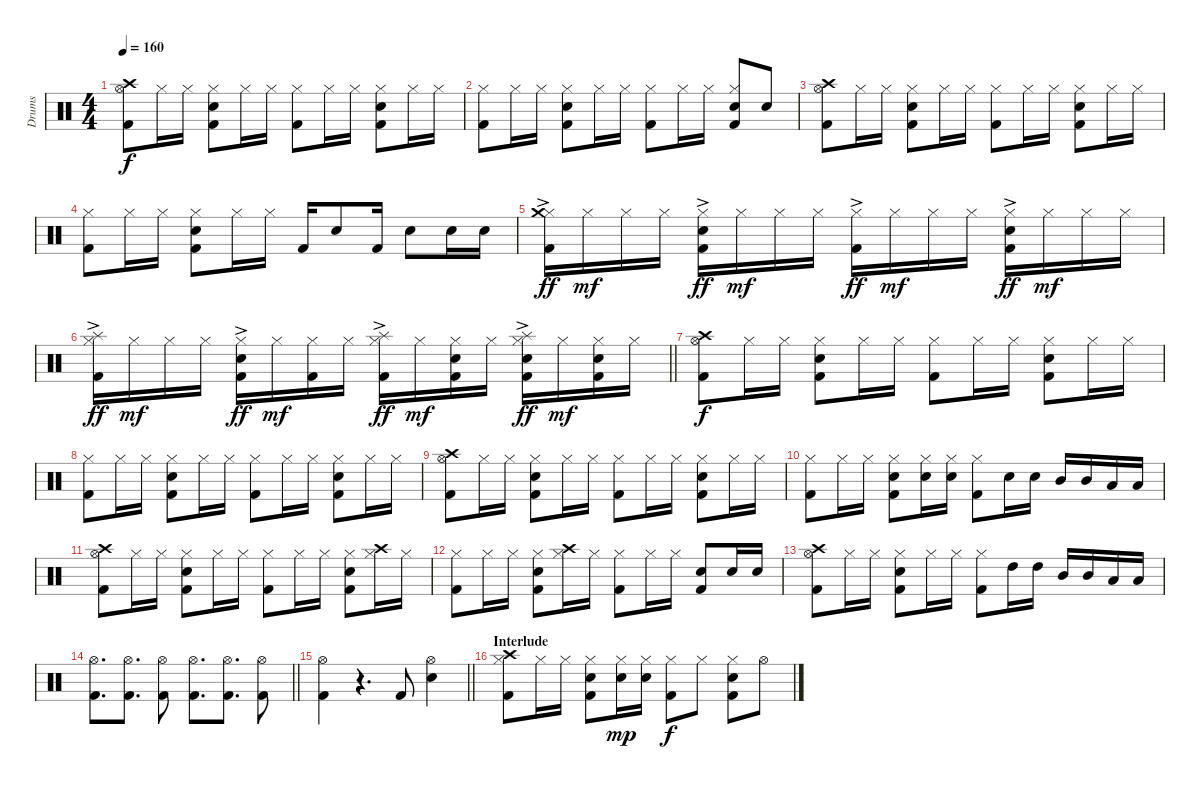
\track ("Drums" "Drums") {instrument percussion}
\staff {score}
\articulation defaults
\ts (4 4)
\tempo 160
\clef neutral
\ks c
("Hi-Hat (open)" "Crash high (hit)" "Kick (hit) 2").8{dy f} "Hi-Hat (closed)".16 "Hi-Hat (closed)".16 ("Hi-Hat (closed)" "Snare (hit) 2" "Kick (hit) 2").8 "Hi-Hat (closed)".16 "Hi-Hat (closed)".16 ("Hi-Hat (closed)" "Kick (hit) 2").8 "Hi-Hat (closed)".16 "Hi-Hat (closed)".16 ("Hi-Hat (closed)" "Snare (hit) 2" "Kick (hit) 2").8 "Hi-Hat (closed)".16 "Hi-Hat (closed)".16 |
("Hi-Hat (closed)" "Kick (hit) 2").8 "Hi-Hat (closed)".16 "Hi-Hat (closed)".16 ("Hi-Hat (closed)" "Snare (hit) 2" "Kick (hit) 2").8 "Hi-Hat (closed)".16 "Hi-Hat (closed)".16 ("Hi-Hat (closed)" "Kick (hit) 2").8 "Hi-Hat (closed)".16 "Hi-Hat (closed)".16 ("Hi-Hat (closed)" "Snare (hit) 2" "Kick (hit) 2").8 "Snare (hit) 2".8 |
("Hi-Hat (open)" "Crash high (hit)" "Kick (hit) 2").8 "Hi-Hat (closed)".16 "Hi-Hat (closed)".16 ("Hi-Hat (closed)" "Snare (hit) 2" "Kick (hit) 2").8 "Hi-Hat (closed)".16 "Hi-Hat (closed)".16 ("Hi-Hat (closed)" "Kick (hit) 2").8 "Hi-Hat (closed)".16 "Hi-Hat (closed)".16 ("Hi-Hat (closed)" "Snare (hit) 2" "Kick (hit) 2").8 "Hi-Hat (closed)".16 "Hi-Hat (closed)".16 |
("Hi-Hat (closed)" "Kick (hit) 2").8 "Hi-Hat (closed)".16 "Hi-Hat (closed)".16 ("Hi-Hat (closed)" "Snare (hit) 2" "Kick (hit) 2").8 "Hi-Hat (closed)".16 "Hi-Hat (closed)".16 "Kick (hit) 2".16 "Snare (hit) 2".8 "Kick (hit) 2".16 "Snare (hit) 2".8 "Snare (hit) 2".16 "Snare (hit) 2".16 |
("Hi-Hat (closed)"{ac} "Crash medium (hit)" "Kick (hit) 2").16{dy ff} "Hi-Hat (closed)".16{dy mf} "Hi-Hat (closed)".16 "Hi-Hat (closed)".16 ("Hi-Hat (closed)"{ac} "Snare (hit) 2" "Kick (hit) 2").16{dy ff} "Hi-Hat (closed)".16{dy mf} "Hi-Hat (closed)".16 "Hi-Hat (closed)".16 ("Hi-Hat (closed)"{ac} "Kick (hit) 2").16{dy ff} "Hi-Hat (closed)".16{dy mf} "Hi-Hat (closed)".16 "Hi-Hat (closed)".16 ("Hi-Hat (closed)"{ac} "Snare (hit) 2" "Kick (hit) 2").16{dy ff} "Hi-Hat (closed)".16{dy mf} "Hi-Hat (closed)".16 "Hi-Hat (closed)".16 |
\barLineRight lightlight
("Hi-Hat (closed)"{ac} "Splash (hit)" "Kick (hit) 2").16{dy ff} "Hi-Hat (closed)".16{dy mf} "Hi-Hat (closed)".16 "Hi-Hat (closed)".16 ("Hi-Hat (closed)"{ac} "Snare (hit) 2" "Kick (hit) 2").16{dy ff} "Hi-Hat (closed)".16{dy mf} ("Hi-Hat (closed)" "Kick (hit) 2").16 "Hi-Hat (closed)".16 ("Hi-Hat (closed)"{ac} "Splash (hit)" "Kick (hit) 2").16{dy ff} "Hi-Hat (closed)".16{dy mf} ("Hi-Hat (closed)" "Snare (hit) 2" "Kick (hit) 2").16 "Hi-Hat (closed)".16 ("Hi-Hat (closed)"{ac} "Snare (hit) 2" "Splash (hit)" "Kick (hit) 2").16{dy ff} "Hi-Hat (closed)".16{dy mf} ("Hi-Hat (closed)" "Snare (hit) 2" "Kick (hit) 2").16 "Hi-Hat (closed)".16 |
("Hi-Hat (open)" "Crash high (hit)" "Kick (hit) 2").8{dy f} "Hi-Hat (closed)".16 "Hi-Hat (closed)".16 ("Hi-Hat (closed)" "Snare (hit) 2" "Kick (hit) 2").8 "Hi-Hat (closed)".16 "Hi-Hat (closed)".16 ("Hi-Hat (closed)" "Kick (hit) 2").8 "Hi-Hat (closed)".16 "Hi-Hat (closed)".16 ("Hi-Hat (closed)" "Snare (hit) 2" "Kick (hit) 2").8 "Hi-Hat (closed)".16 "Hi-Hat (closed)".16 |
("Hi-Hat (closed)" "Kick (hit) 2").8 "Hi-Hat (closed)".16 "Hi-Hat (closed)".16 ("Hi-Hat (closed)" "Snare (hit) 2" "Kick (hit) 2").8 "Hi-Hat (closed)".16 "Hi-Hat (closed)".16 ("Hi-Hat (closed)" "Kick (hit) 2").8 "Hi-Hat (closed)".16 "Hi-Hat (closed)".16 ("Hi-Hat (closed)" "Snare (hit) 2" "Kick (hit) 2").8 "Hi-Hat (closed)".16 "Hi-Hat (closed)".16 |
("Hi-Hat (open)" "Crash high (hit)" "Kick (hit) 2").8 "Hi-Hat (closed)".16 "Hi-Hat (closed)".16 ("Hi-Hat (closed)" "Snare (hit) 2" "Kick (hit) 2").8 "Hi-Hat (closed)".16 "Hi-Hat (closed)".16 ("Hi-Hat (closed)" "Kick (hit) 2").8 "Hi-Hat (closed)".16 "Hi-Hat (closed)".16 ("Hi-Hat (closed)" "Snare (hit) 2" "Kick (hit) 2").8 "Hi-Hat (closed)".16 "Hi-Hat (closed)".16 |
("Hi-Hat (closed)" "Kick (hit) 2").8 "Hi-Hat (closed)".16 "Hi-Hat (closed)".16 ("Hi-Hat (closed)" "Snare (hit) 2" "Kick (hit) 2").8 ("Hi-Hat (closed)" "Snare (hit) 2").16 ("Hi-Hat (closed)" "Snare (hit) 2").16 ("Hi-Hat (closed)" "Kick (hit) 2").8 "Snare (hit) 2".16 "Snare (hit) 2".16 "Mid Tom (hit)".16 "Mid Tom (hit)".16 "Low Tom (hit)".16 "Low Tom (hit)".16 |
("Hi-Hat (open)" "Crash high (hit)" "Kick (hit) 2").8 "Hi-Hat (closed)".16 "Hi-Hat (closed)".16 ("Hi-Hat (closed)" "Snare (hit) 2" "Kick (hit) 2").8 "Hi-Hat (closed)".16 "Hi-Hat (closed)".16 ("Hi-Hat (closed)" "Kick (hit) 2").8 "Hi-Hat (closed)".16 "Hi-Hat (closed)".16 ("Hi-Hat (closed)" "Snare (hit) 2" "Kick (hit) 2").8 ("Hi-Hat (closed)" "Crash high (hit)").16 "Hi-Hat (closed)".16 |
("Hi-Hat (closed)" "Kick (hit) 2").8 "Hi-Hat (closed)".16 "Hi-Hat (closed)".16 ("Hi-Hat (closed)" "Snare (hit) 2" "Kick (hit) 2").8 ("Hi-Hat (closed)" "Crash high (hit)").16 "Hi-Hat (closed)".16 ("Hi-Hat (closed)" "Kick (hit) 2").8 "Hi-Hat (closed)".16 "Hi-Hat (closed)".16 ("Snare (hit) 2" "Kick (hit) 2").8 "Snare (hit) 2".16 "Snare (hit) 2".16 |
("Hi-Hat (open)" "Crash high (hit)" "Kick (hit) 2").8 "Hi-Hat (closed)".16 "Hi-Hat (closed)".16 ("Hi-Hat (closed)" "Snare (hit) 2" "Kick (hit) 2").8 "Hi-Hat (closed)".16 "Hi-Hat (closed)".16 ("Hi-Hat (closed)" "Kick (hit) 2").8 "High Tom (hit)".16 "High Tom (hit)".16 "Mid Tom (hit)".16 "Mid Tom (hit)".16 "Low Tom (hit)".16 "Low Tom (hit)".16 |
\barLineRight lightlight
("Hi-Hat (open)" "Kick (hit) 2").8{d} ("Hi-Hat (open)" "Kick (hit) 2").8{d} ("Hi-Hat (open)" "Kick (hit) 2").8 ("Hi-Hat (open)" "Kick (hit) 2").8{d} ("Hi-Hat (open)" "Kick (hit) 2").8{d} ("Hi-Hat (open)" "Kick (hit) 2").8 |
\barLineRight lightlight
("Hi-Hat (open)" "Kick (hit) 2").4 r.4{d} "Kick (hit) 2".8 ("Hi-Hat (open)" "Snare (hit) 2").4 |
\section ("" "Interlude")
("Hi-Hat (closed)" "Crash high (hit)" "Kick (hit) 2").8 "Hi-Hat (closed)".16 "Hi-Hat (closed)".16 ("Hi-Hat (closed)" "Snare (hit) 2" "Kick (hit) 2").8 ("Hi-Hat (closed)" "Snare (hit) 2").16{dy mp} ("Hi-Hat (closed)" "Snare (hit) 2").16 ("Hi-Hat (closed)" "Kick (hit) 2").8{dy f} "Hi-Hat (closed)".8 ("Hi-Hat (closed)" "Snare (hit) 2" "Kick (hit) 2").8 "Hi-Hat (open)".8
